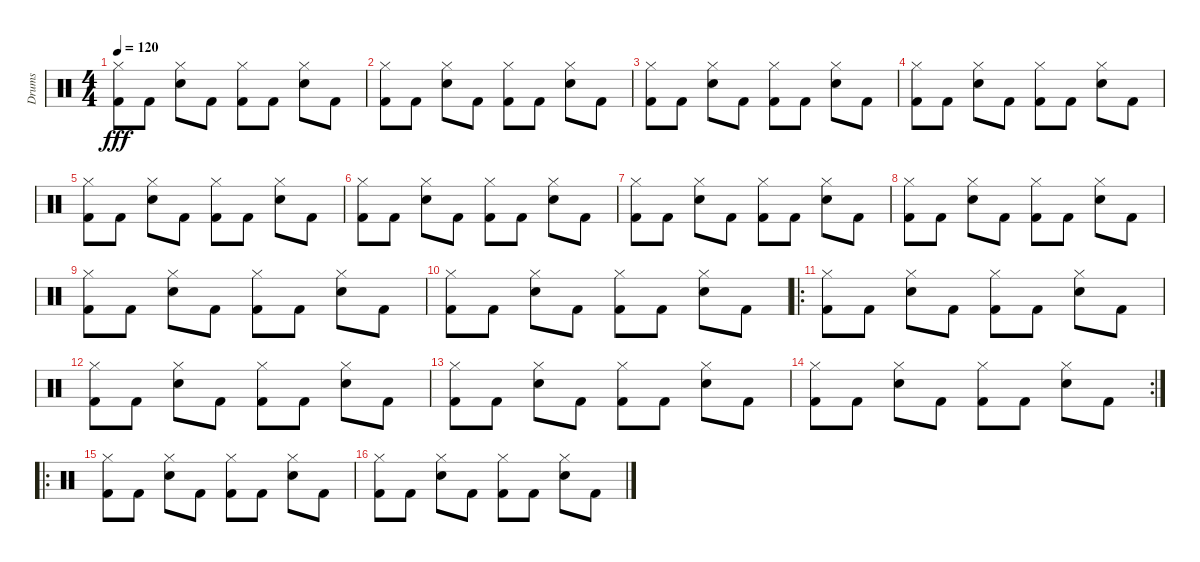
\track ("Drums" "Drums") {instrument percussion}
\staff {score}
\articulation defaults
\ts (4 4)
\tempo 120
\clef neutral
\ks c
("Kick (hit) 2" "Hi-Hat (closed)").8{dy fff} "Kick (hit) 2".8 ("Hi-Hat (closed)" "Snare (hit) 2").8 "Kick (hit) 2".8 ("Kick (hit) 2" "Hi-Hat (closed)").8 "Kick (hit) 2".8 ("Hi-Hat (closed)" "Snare (hit) 2").8 "Kick (hit) 2".8 |
("Kick (hit) 2" "Hi-Hat (closed)").8 "Kick (hit) 2".8 ("Hi-Hat (closed)" "Snare (hit) 2").8 "Kick (hit) 2".8 ("Kick (hit) 2" "Hi-Hat (closed)").8 "Kick (hit) 2".8 ("Hi-Hat (closed)" "Snare (hit) 2").8 "Kick (hit) 2".8 |
("Kick (hit) 2" "Hi-Hat (closed)").8 "Kick (hit) 2".8 ("Hi-Hat (closed)" "Snare (hit) 2").8 "Kick (hit) 2".8 ("Kick (hit) 2" "Hi-Hat (closed)").8 "Kick (hit) 2".8 ("Hi-Hat (closed)" "Snare (hit) 2").8 "Kick (hit) 2".8 |
("Kick (hit) 2" "Hi-Hat (closed)").8 "Kick (hit) 2".8 ("Hi-Hat (closed)" "Snare (hit) 2").8 "Kick (hit) 2".8 ("Kick (hit) 2" "Hi-Hat (closed)").8 "Kick (hit) 2".8 ("Hi-Hat (closed)" "Snare (hit) 2").8 "Kick (hit) 2".8 |
("Kick (hit) 2" "Hi-Hat (closed)").8 "Kick (hit) 2".8 ("Hi-Hat (closed)" "Snare (hit) 2").8 "Kick (hit) 2".8 ("Kick (hit) 2" "Hi-Hat (closed)").8 "Kick (hit) 2".8 ("Hi-Hat (closed)" "Snare (hit) 2").8 "Kick (hit) 2".8 |
("Kick (hit) 2" "Hi-Hat (closed)").8 "Kick (hit) 2".8 ("Hi-Hat (closed)" "Snare (hit) 2").8 "Kick (hit) 2".8 ("Kick (hit) 2" "Hi-Hat (closed)").8 "Kick (hit) 2".8 ("Hi-Hat (closed)" "Snare (hit) 2").8 "Kick (hit) 2".8 |
("Kick (hit) 2" "Hi-Hat (closed)").8 "Kick (hit) 2".8 ("Hi-Hat (closed)" "Snare (hit) 2").8 "Kick (hit) 2".8 ("Kick (hit) 2" "Hi-Hat (closed)").8 "Kick (hit) 2".8 ("Hi-Hat (closed)" "Snare (hit) 2").8 "Kick (hit) 2".8 |
("Kick (hit) 2" "Hi-Hat (closed)").8 "Kick (hit) 2".8 ("Hi-Hat (closed)" "Snare (hit) 2").8 "Kick (hit) 2".8 ("Kick (hit) 2" "Hi-Hat (closed)").8 "Kick (hit) 2".8 ("Hi-Hat (closed)" "Snare (hit) 2").8 "Kick (hit) 2".8 |
("Kick (hit) 2" "Hi-Hat (closed)").8 "Kick (hit) 2".8 ("Hi-Hat (closed)" "Snare (hit) 2").8 "Kick (hit) 2".8 ("Kick (hit) 2" "Hi-Hat (closed)").8 "Kick (hit) 2".8 ("Hi-Hat (closed)" "Snare (hit) 2").8 "Kick (hit) 2".8 |
("Kick (hit) 2" "Hi-Hat (closed)").8 "Kick (hit) 2".8 ("Hi-Hat (closed)" "Snare (hit) 2").8 "Kick (hit) 2".8 ("Kick (hit) 2" "Hi-Hat (closed)").8 "Kick (hit) 2".8 ("Hi-Hat (closed)" "Snare (hit) 2").8 "Kick (hit) 2".8 |
\ro
("Kick (hit) 2" "Hi-Hat (closed)").8 "Kick (hit) 2".8 ("Hi-Hat (closed)" "Snare (hit) 2").8 "Kick (hit) 2".8 ("Kick (hit) 2" "Hi-Hat (closed)").8 "Kick (hit) 2".8 ("Hi-Hat (closed)" "Snare (hit) 2").8 "Kick (hit) 2".8 |
("Kick (hit) 2" "Hi-Hat (closed)").8 "Kick (hit) 2".8 ("Hi-Hat (closed)" "Snare (hit) 2").8 "Kick (hit) 2".8 ("Kick (hit) 2" "Hi-Hat (closed)").8 "Kick (hit) 2".8 ("Hi-Hat (closed)" "Snare (hit) 2").8 "Kick (hit) 2".8 |
("Kick (hit) 2" "Hi-Hat (closed)").8 "Kick (hit) 2".8 ("Hi-Hat (closed)" "Snare (hit) 2").8 "Kick (hit) 2".8 ("Kick (hit) 2" "Hi-Hat (closed)").8 "Kick (hit) 2".8 ("Hi-Hat (closed)" "Snare (hit) 2").8 "Kick (hit) 2".8 |
\rc 2
("Kick (hit) 2" "Hi-Hat (closed)").8 "Kick (hit) 2".8 ("Hi-Hat (closed)" "Snare (hit) 2").8 "Kick (hit) 2".8 ("Kick (hit) 2" "Hi-Hat (closed)").8 "Kick (hit) 2".8 ("Hi-Hat (closed)" "Snare (hit) 2").8 "Kick (hit) 2".8 |
\ro
("Kick (hit) 2" "Hi-Hat (closed)").8 "Kick (hit) 2".8 ("Hi-Hat (closed)" "Snare (hit) 2").8 "Kick (hit) 2".8 ("Kick (hit) 2" "Hi-Hat (closed)").8 "Kick (hit) 2".8 ("Hi-Hat (closed)" "Snare (hit) 2").8 "Kick (hit) 2".8 |
("Kick (hit) 2" "Hi-Hat (closed)").8 "Kick (hit) 2".8 ("Hi-Hat (closed)" "Snare (hit) 2").8 "Kick (hit) 2".8 ("Kick (hit) 2" "Hi-Hat (closed)").8 "Kick (hit) 2".8 ("Hi-Hat (closed)" "Snare (hit) 2").8 "Kick (hit) 2".8
